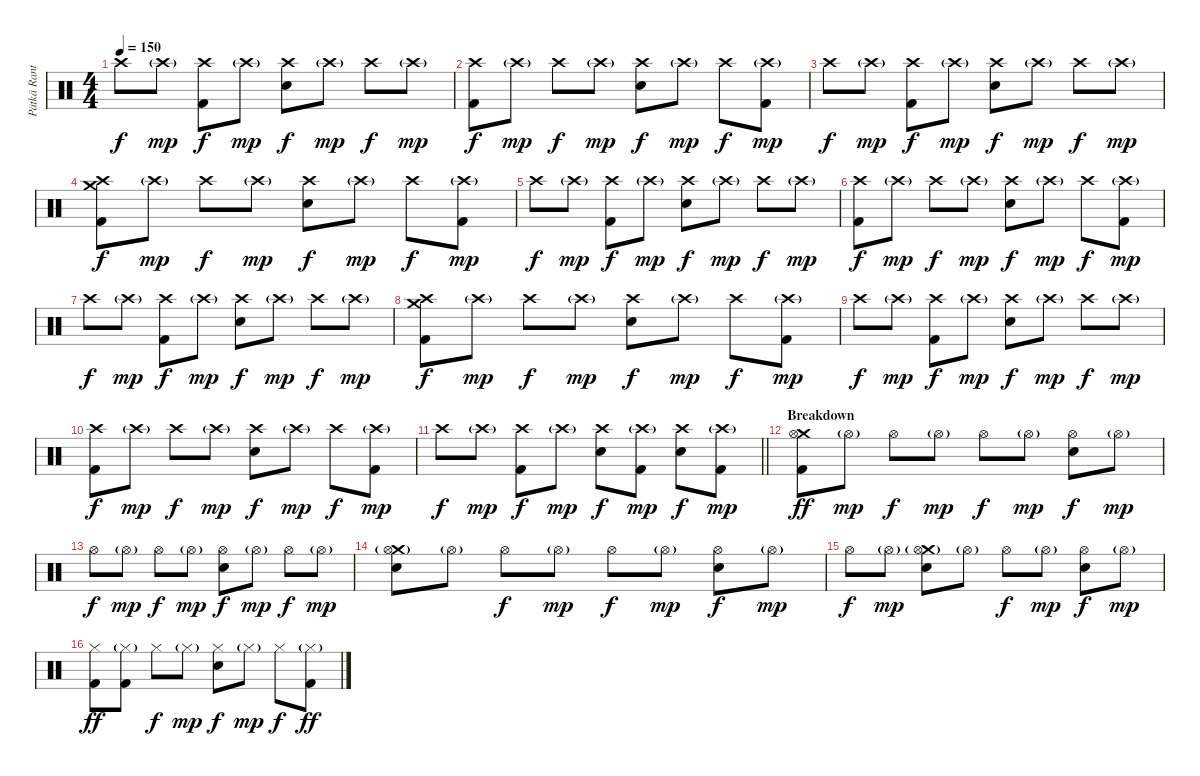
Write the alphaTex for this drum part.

\track ("Pätkä Rantala (Drums)" "Pätkä Rant") {instrument percussion}
\staff {score}
\articulation defaults
\ts (4 4)
\tempo 150
\clef neutral
\ks c "Crash high (hit)".8{dy f} "Crash high (hit)"{g}.8{dy mp}
("Crash high (hit)" "Kick (hit) 2").8{dy f} "Crash high (hit)"{g}.8{dy mp} ("Crash high (hit)" "Snare (hit) 2").8{dy f} "Crash high (hit)"{g}.8{dy mp} "Crash high (hit)".8{dy f} "Crash high (hit)"{g}.8{dy mp} |
("Crash high (hit)" "Kick (hit) 2").8{dy f} "Crash high (hit)"{g}.8{dy mp} "Crash high (hit)".8{dy f} "Crash high (hit)"{g}.8{dy mp} ("Crash high (hit)" "Snare (hit) 2").8{dy f} "Crash high (hit)"{g}.8{dy mp} "Crash high (hit)".8{dy f} ("Crash high (hit)"{g} "Kick (hit) 2").8{dy mp} |
"Crash high (hit)".8{dy f} "Crash high (hit)"{g}.8{dy mp} ("Crash high (hit)" "Kick (hit) 2").8{dy f} "Crash high (hit)"{g}.8{dy mp} ("Crash high (hit)" "Snare (hit) 2").8{dy f} "Crash high (hit)"{g}.8{dy mp} "Crash high (hit)".8{dy f} "Crash high (hit)"{g}.8{dy mp} |
("Crash medium (hit)" "Crash high (hit)" "Kick (hit) 2").8{dy f} "Crash high (hit)"{g}.8{dy mp} "Crash high (hit)".8{dy f} "Crash high (hit)"{g}.8{dy mp} ("Crash high (hit)" "Snare (hit) 2").8{dy f} "Crash high (hit)"{g}.8{dy mp} "Crash high (hit)".8{dy f} ("Crash high (hit)"{g} "Kick (hit) 2").8{dy mp} |
"Crash high (hit)".8{dy f} "Crash high (hit)"{g}.8{dy mp} ("Crash high (hit)" "Kick (hit) 2").8{dy f} "Crash high (hit)"{g}.8{dy mp} ("Crash high (hit)" "Snare (hit) 2").8{dy f} "Crash high (hit)"{g}.8{dy mp} "Crash high (hit)".8{dy f} "Crash high (hit)"{g}.8{dy mp} |
("Crash high (hit)" "Kick (hit) 2").8{dy f} "Crash high (hit)"{g}.8{dy mp} "Crash high (hit)".8{dy f} "Crash high (hit)"{g}.8{dy mp} ("Crash high (hit)" "Snare (hit) 2").8{dy f} "Crash high (hit)"{g}.8{dy mp} "Crash high (hit)".8{dy f} ("Crash high (hit)"{g} "Kick (hit) 2").8{dy mp} |
"Crash high (hit)".8{dy f} "Crash high (hit)"{g}.8{dy mp} ("Crash high (hit)" "Kick (hit) 2").8{dy f} "Crash high (hit)"{g}.8{dy mp} ("Crash high (hit)" "Snare (hit) 2").8{dy f} "Crash high (hit)"{g}.8{dy mp} "Crash high (hit)".8{dy f} "Crash high (hit)"{g}.8{dy mp} |
("Crash medium (hit)" "Crash high (hit)" "Kick (hit) 2").8{dy f} "Crash high (hit)"{g}.8{dy mp} "Crash high (hit)".8{dy f} "Crash high (hit)"{g}.8{dy mp} ("Crash high (hit)" "Snare (hit) 2").8{dy f} "Crash high (hit)"{g}.8{dy mp} "Crash high (hit)".8{dy f} ("Crash high (hit)"{g} "Kick (hit) 2").8{dy mp} |
"Crash high (hit)".8{dy f} "Crash high (hit)"{g}.8{dy mp} ("Crash high (hit)" "Kick (hit) 2").8{dy f} "Crash high (hit)"{g}.8{dy mp} ("Crash high (hit)" "Snare (hit) 2").8{dy f} "Crash high (hit)"{g}.8{dy mp} "Crash high (hit)".8{dy f} "Crash high (hit)"{g}.8{dy mp} |
("Crash high (hit)" "Kick (hit) 2").8{dy f} "Crash high (hit)"{g}.8{dy mp} "Crash high (hit)".8{dy f} "Crash high (hit)"{g}.8{dy mp} ("Crash high (hit)" "Snare (hit) 2").8{dy f} "Crash high (hit)"{g}.8{dy mp} "Crash high (hit)".8{dy f} ("Crash high (hit)"{g} "Kick (hit) 2").8{dy mp} |
\barLineRight lightlight "Crash high (hit)".8{dy f} "Crash high (hit)"{g}.8{dy mp}
("Crash high (hit)" "Kick (hit) 2").8{dy f} "Crash high (hit)"{g}.8{dy mp} ("Crash high (hit)" "Snare (hit) 2").8{dy f} ("Crash high (hit)"{g} "Kick (hit) 2").8{dy mp} ("Crash high (hit)" "Snare (hit) 2").8{dy f} ("Crash high (hit)"{g} "Kick (hit) 2").8{dy mp} |
\section ("" "Breakdown")
("Crash medium (hit)" "Hi-Hat (open)" "Kick (hit) 2").8{dy ff} "Hi-Hat (open)"{g}.8{dy mp} "Hi-Hat (open)".8{dy f} "Hi-Hat (open)"{g}.8{dy mp} "Hi-Hat (open)".8{dy f} "Hi-Hat (open)"{g}.8{dy mp} ("Hi-Hat (open)" "Snare (hit) 2").8{dy f} "Hi-Hat (open)"{g}.8{dy mp} |
"Hi-Hat (open)".8{dy f} "Hi-Hat (open)"{g}.8{dy mp} "Hi-Hat (open)".8{dy f} "Hi-Hat (open)"{g}.8{dy mp} ("Hi-Hat (open)" "Snare (hit) 2").8{dy f} "Hi-Hat (open)"{g}.8{dy mp} "Hi-Hat (open)".8{dy f} "Hi-Hat (open)"{g}.8{dy mp} |
("Crash medium (hit)"{g} "Hi-Hat (open)" "Snare (hit) 2").8 "Hi-Hat (open)"{g}.8 "Hi-Hat (open)".8{dy f} "Hi-Hat (open)"{g}.8{dy mp} "Hi-Hat (open)".8{dy f} "Hi-Hat (open)"{g}.8{dy mp} ("Hi-Hat (open)" "Snare (hit) 2").8{dy f} "Hi-Hat (open)"{g}.8{dy mp} |
"Hi-Hat (open)".8{dy f} "Hi-Hat (open)"{g}.8{dy mp} ("Crash medium (hit)"{g} "Hi-Hat (open)" "Snare (hit) 2").8 "Hi-Hat (open)"{g}.8 "Hi-Hat (open)".8{dy f} "Hi-Hat (open)"{g}.8{dy mp} ("Hi-Hat (open)" "Snare (hit) 2").8{dy f} "Hi-Hat (open)"{g}.8{dy mp} |
("Hi-Hat (closed)" "Kick (hit) 2").8{dy ff} ("Hi-Hat (closed)"{g} "Kick (hit) 2").8 "Hi-Hat (closed)".8{dy f} "Hi-Hat (closed)"{g}.8{dy mp} ("Hi-Hat (closed)" "Snare (hit) 2").8{dy f} "Hi-Hat (closed)"{g}.8{dy mp} "Hi-Hat (closed)".8{dy f} ("Hi-Hat (closed)"{g} "Kick (hit) 2").8{dy ff}
